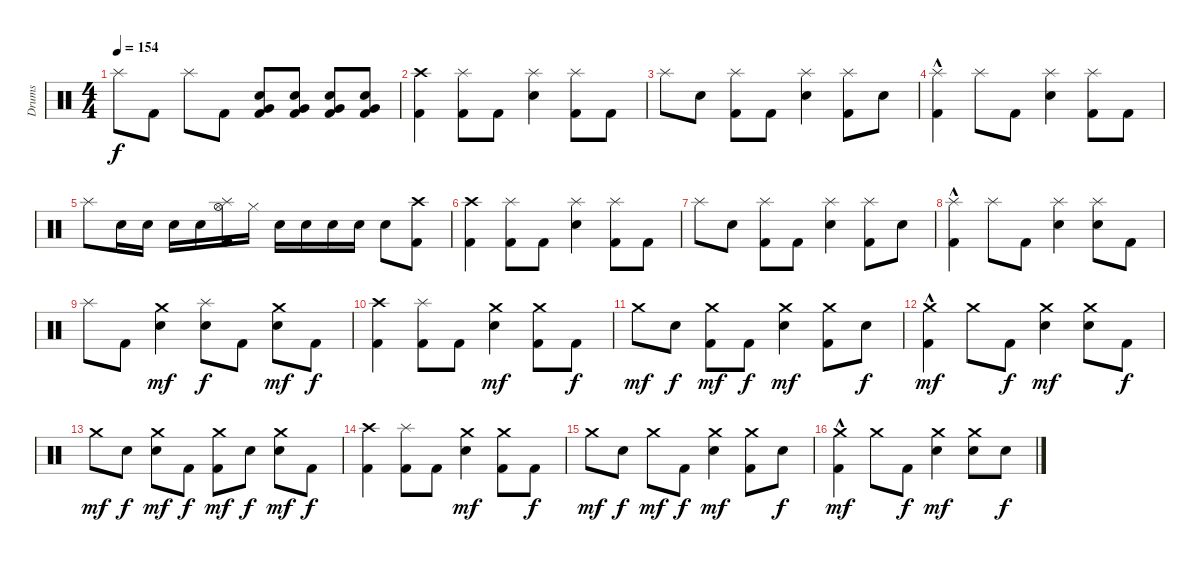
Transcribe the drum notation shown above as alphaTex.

\track ("Drums" "Drums") {instrument percussion}
\staff {score}
\articulation defaults
\ts (4 4)
\tempo 154
\clef neutral
\ks c "Splash (hit)".8{dy f} "Kick (hit) 2".8 "Splash (hit)".8 "Kick (hit) 2".8
("Electric Snare (hit)" "Kick (hit) 2" "Very Low Tom (hit)").8 ("Electric Snare (hit)" "Kick (hit) 2" "Very Low Tom (hit)").8 ("Electric Snare (hit)" "Kick (hit) 2" "Very Low Tom (hit)").8 ("Electric Snare (hit)" "Kick (hit) 2" "Very Low Tom (hit)").8 |
("Kick (hit) 2" "Crash high (hit)").4 ("Kick (hit) 2" "Splash (hit)").8 "Kick (hit) 2".8 ("Electric Snare (hit)" "Splash (hit)").4 ("Kick (hit) 2" "Splash (hit)").8 "Kick (hit) 2".8 |
"Splash (hit)".8 "Electric Snare (hit)".8 ("Kick (hit) 2" "Splash (hit)").8 "Kick (hit) 2".8 ("Electric Snare (hit)" "Splash (hit)").4 ("Kick (hit) 2" "Splash (hit)").8 "Electric Snare (hit)".8 |
("Kick (hit) 2"{hac} "Splash (hit)").4 "Splash (hit)".8 "Kick (hit) 2".8 ("Electric Snare (hit)" "Splash (hit)").4 ("Kick (hit) 2" "Splash (hit)").8 "Kick (hit) 2".8 |
"Splash (hit)".8 "Electric Snare (hit)".16 "Electric Snare (hit)".16 "Electric Snare (hit)".16 "Electric Snare (hit)".16 ("Kick (hit) 2" "Hi-Hat (open)" "Splash (hit)").16 "Hi-Hat (closed)".16 "Electric Snare (hit)".16 "Electric Snare (hit)".16 "Electric Snare (hit)".16 "Electric Snare (hit)".16 "Electric Snare (hit)".8 ("Kick (hit) 2" "Crash high (hit)").8 |
("Crash high (hit)" "Kick (hit) 2").4 ("Kick (hit) 2" "Splash (hit)").8 "Kick (hit) 2".8 ("Electric Snare (hit)" "Splash (hit)").4 ("Kick (hit) 2" "Splash (hit)").8 "Kick (hit) 2".8 |
"Splash (hit)".8 "Electric Snare (hit)".8 ("Kick (hit) 2" "Splash (hit)").8 "Kick (hit) 2".8 ("Electric Snare (hit)" "Splash (hit)").4 ("Kick (hit) 2" "Splash (hit)").8 "Electric Snare (hit)".8 |
("Kick (hit) 2"{hac} "Splash (hit)").4 "Splash (hit)".8 "Kick (hit) 2".8 ("Electric Snare (hit)" "Splash (hit)").4 ("Electric Snare (hit)" "Splash (hit)").8 "Kick (hit) 2".8 |
"Splash (hit)".8 "Kick (hit) 2".8 ("Electric Snare (hit)" "Crash medium (hit)").4{dy mf} ("Electric Snare (hit)" "Splash (hit)").8{dy f} "Kick (hit) 2".8 ("Electric Snare (hit)" "Crash medium (hit)").8{dy mf} "Kick (hit) 2".8{dy f} |
("Kick (hit) 2" "Crash high (hit)").4 ("Kick (hit) 2" "Splash (hit)").8 "Kick (hit) 2".8 ("Electric Snare (hit)" "Crash medium (hit)").4{dy mf} ("Kick (hit) 2" "Crash medium (hit)").8 "Kick (hit) 2".8{dy f} |
"Crash medium (hit)".8{dy mf} "Electric Snare (hit)".8{dy f} ("Kick (hit) 2" "Crash medium (hit)").8{dy mf} "Kick (hit) 2".8{dy f} ("Electric Snare (hit)" "Crash medium (hit)").4{dy mf} ("Kick (hit) 2" "Crash medium (hit)").8 "Electric Snare (hit)".8{dy f} |
("Kick (hit) 2"{hac} "Crash medium (hit)").4{dy mf} "Crash medium (hit)".8 "Kick (hit) 2".8{dy f} ("Electric Snare (hit)" "Crash medium (hit)").4{dy mf} ("Electric Snare (hit)" "Crash medium (hit)").8 "Kick (hit) 2".8{dy f} |
"Crash medium (hit)".8{dy mf} "Electric Snare (hit)".8{dy f} ("Electric Snare (hit)" "Crash medium (hit)").8{dy mf} "Kick (hit) 2".8{dy f} ("Kick (hit) 2" "Crash medium (hit)").8{dy mf} "Electric Snare (hit)".8{dy f} ("Electric Snare (hit)" "Crash medium (hit)").8{dy mf} "Kick (hit) 2".8{dy f} |
("Crash high (hit)" "Kick (hit) 2").4 ("Kick (hit) 2" "Splash (hit)").8 "Kick (hit) 2".8 ("Electric Snare (hit)" "Crash medium (hit)").4{dy mf} ("Kick (hit) 2" "Crash medium (hit)").8 "Kick (hit) 2".8{dy f} |
"Crash medium (hit)".8{dy mf} "Electric Snare (hit)".8{dy f} "Crash medium (hit)".8{dy mf} "Kick (hit) 2".8{dy f} ("Electric Snare (hit)" "Crash medium (hit)").4{dy mf} ("Kick (hit) 2" "Crash medium (hit)").8 "Electric Snare (hit)".8{dy f} |
("Kick (hit) 2"{hac} "Crash medium (hit)").4{dy mf} "Crash medium (hit)".8 "Kick (hit) 2".8{dy f} ("Electric Snare (hit)" "Crash medium (hit)").4{dy mf} ("Electric Snare (hit)" "Crash medium (hit)").8 "Electric Snare (hit)".8{dy f}
